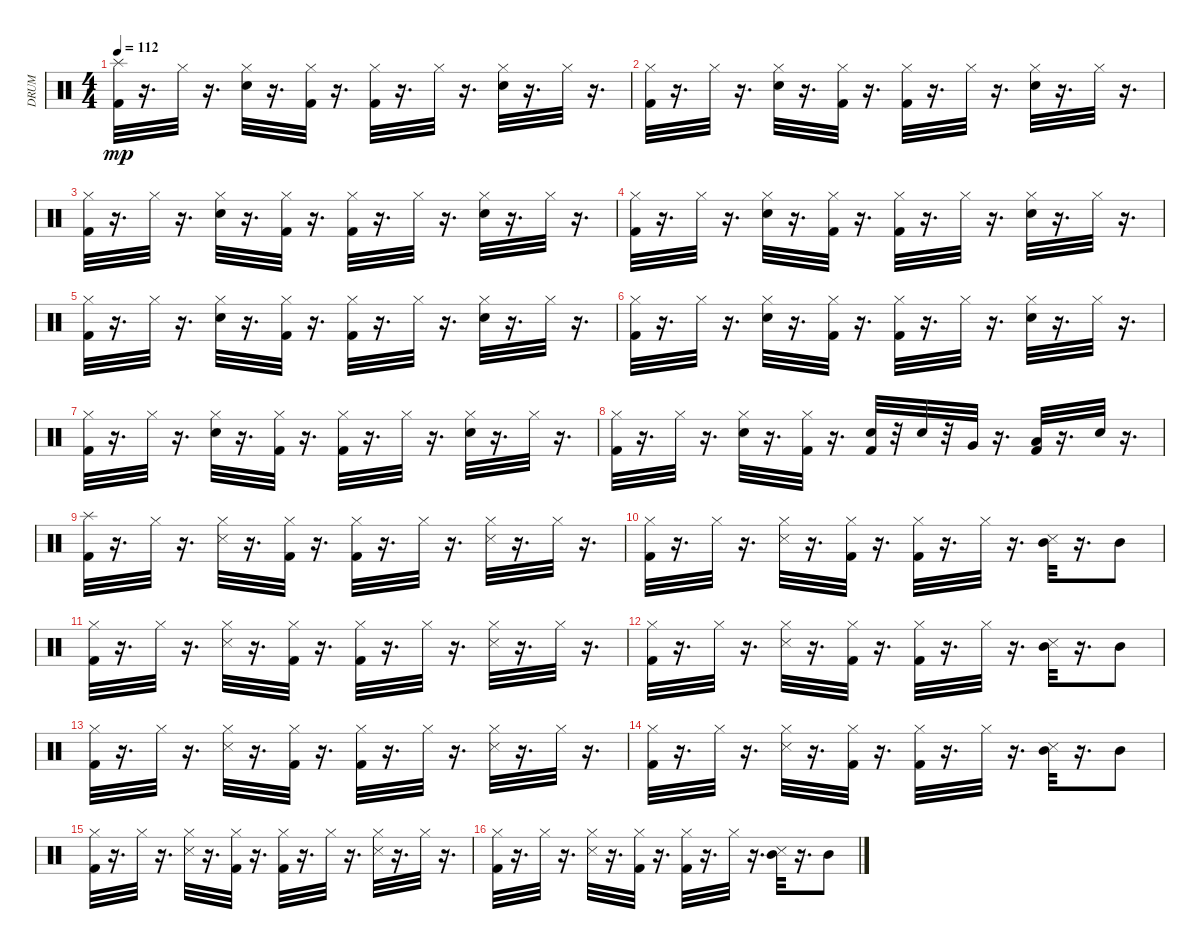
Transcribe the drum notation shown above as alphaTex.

\track ("DRUM" "DRUM") {instrument percussion}
\staff {score}
\articulation defaults
\ts (4 4)
\tempo 112
\clef neutral
\ks c
("Kick (hit) 2" "Splash (hit)").32{dy mp} r.16{d} "Hi-Hat (closed)".32 r.16{d} ("Hi-Hat (closed)" "Snare (hit) 2").32 r.16{d} ("Kick (hit) 2" "Hi-Hat (closed)").32 r.16{d} ("Kick (hit) 2" "Hi-Hat (closed)").32 r.16{d} "Hi-Hat (closed)".32 r.16{d} ("Hi-Hat (closed)" "Snare (hit) 2").32 r.16{d} "Hi-Hat (closed)".32 r.16{d} |
("Kick (hit) 2" "Hi-Hat (closed)").32 r.16{d} "Hi-Hat (closed)".32 r.16{d} ("Hi-Hat (closed)" "Snare (hit) 2").32 r.16{d} ("Kick (hit) 2" "Hi-Hat (closed)").32 r.16{d} ("Kick (hit) 2" "Hi-Hat (closed)").32 r.16{d} "Hi-Hat (closed)".32 r.16{d} ("Hi-Hat (closed)" "Snare (hit) 2").32 r.16{d} "Hi-Hat (closed)".32 r.16{d} |
("Kick (hit) 2" "Hi-Hat (closed)").32 r.16{d} "Hi-Hat (closed)".32 r.16{d} ("Hi-Hat (closed)" "Snare (hit) 2").32 r.16{d} ("Kick (hit) 2" "Hi-Hat (closed)").32 r.16{d} ("Kick (hit) 2" "Hi-Hat (closed)").32 r.16{d} "Hi-Hat (closed)".32 r.16{d} ("Hi-Hat (closed)" "Snare (hit) 2").32 r.16{d} "Hi-Hat (closed)".32 r.16{d} |
("Kick (hit) 2" "Hi-Hat (closed)").32 r.16{d} "Hi-Hat (closed)".32 r.16{d} ("Hi-Hat (closed)" "Snare (hit) 2").32 r.16{d} ("Kick (hit) 2" "Hi-Hat (closed)").32 r.16{d} ("Kick (hit) 2" "Hi-Hat (closed)").32 r.16{d} "Hi-Hat (closed)".32 r.16{d} ("Hi-Hat (closed)" "Snare (hit) 2").32 r.16{d} "Hi-Hat (closed)".32 r.16{d} |
("Kick (hit) 2" "Hi-Hat (closed)").32 r.16{d} "Hi-Hat (closed)".32 r.16{d} ("Hi-Hat (closed)" "Snare (hit) 2").32 r.16{d} ("Kick (hit) 2" "Hi-Hat (closed)").32 r.16{d} ("Kick (hit) 2" "Hi-Hat (closed)").32 r.16{d} "Hi-Hat (closed)".32 r.16{d} ("Hi-Hat (closed)" "Snare (hit) 2").32 r.16{d} "Hi-Hat (closed)".32 r.16{d} |
("Kick (hit) 2" "Hi-Hat (closed)").32 r.16{d} "Hi-Hat (closed)".32 r.16{d} ("Hi-Hat (closed)" "Snare (hit) 2").32 r.16{d} ("Kick (hit) 2" "Hi-Hat (closed)").32 r.16{d} ("Kick (hit) 2" "Hi-Hat (closed)").32 r.16{d} "Hi-Hat (closed)".32 r.16{d} ("Hi-Hat (closed)" "Snare (hit) 2").32 r.16{d} "Hi-Hat (closed)".32 r.16{d} |
("Kick (hit) 2" "Hi-Hat (closed)").32 r.16{d} "Hi-Hat (closed)".32 r.16{d} ("Hi-Hat (closed)" "Snare (hit) 2").32 r.16{d} ("Kick (hit) 2" "Hi-Hat (closed)").32 r.16{d} ("Kick (hit) 2" "Hi-Hat (closed)").32 r.16{d} "Hi-Hat (closed)".32 r.16{d} ("Hi-Hat (closed)" "Snare (hit) 2").32 r.16{d} "Hi-Hat (closed)".32 r.16{d} |
("Kick (hit) 2" "Hi-Hat (closed)").32 r.16{d} "Hi-Hat (closed)".32 r.16{d} ("Hi-Hat (closed)" "Snare (hit) 2").32 r.16{d} ("Kick (hit) 2" "Hi-Hat (closed)").32 r.16{d} ("Kick (hit) 2" "Snare (hit) 2").32 r.32 "Snare (hit) 2".32 r.32 "Very Low Tom (hit)".32 r.16{d} ("Kick (hit) 2" "Low Floor Tom (hit)").32 r.16{d} "Electric Snare (hit)".32 r.16{d} |
("Kick (hit) 2" "Splash (hit)").32 r.16{d} "Hi-Hat (closed)".32 r.16{d} ("Hi-Hat (closed)" "Snare (side stick) 3").32 r.16{d} ("Kick (hit) 2" "Hi-Hat (closed)").32 r.16{d} ("Kick (hit) 2" "Hi-Hat (closed)").32 r.16{d} "Hi-Hat (closed)".32 r.16{d} ("Hi-Hat (closed)" "Snare (side stick) 3").32 r.16{d} "Hi-Hat (closed)".32 r.16{d} |
("Kick (hit) 2" "Hi-Hat (closed)").32 r.16{d} "Hi-Hat (closed)".32 r.16{d} ("Hi-Hat (closed)" "Snare (side stick) 3").32 r.16{d} ("Kick (hit) 2" "Hi-Hat (closed)").32 r.16{d} ("Kick (hit) 2" "Hi-Hat (closed)").32 r.16{d} "Hi-Hat (closed)".32 r.16{d} ("Snare (side stick) 3" "Mid Tom (hit)").32 r.16{d} "Mid Tom (hit)".8 |
("Kick (hit) 2" "Hi-Hat (closed)").32 r.16{d} "Hi-Hat (closed)".32 r.16{d} ("Hi-Hat (closed)" "Snare (side stick) 3").32 r.16{d} ("Kick (hit) 2" "Hi-Hat (closed)").32 r.16{d} ("Kick (hit) 2" "Hi-Hat (closed)").32 r.16{d} "Hi-Hat (closed)".32 r.16{d} ("Hi-Hat (closed)" "Snare (side stick) 3").32 r.16{d} "Hi-Hat (closed)".32 r.16{d} |
("Kick (hit) 2" "Hi-Hat (closed)").32 r.16{d} "Hi-Hat (closed)".32 r.16{d} ("Hi-Hat (closed)" "Snare (side stick) 3").32 r.16{d} ("Kick (hit) 2" "Hi-Hat (closed)").32 r.16{d} ("Kick (hit) 2" "Hi-Hat (closed)").32 r.16{d} "Hi-Hat (closed)".32 r.16{d} ("Snare (side stick) 3" "Mid Tom (hit)").32 r.16{d} "Mid Tom (hit)".8 |
("Kick (hit) 2" "Hi-Hat (closed)").32 r.16{d} "Hi-Hat (closed)".32 r.16{d} ("Hi-Hat (closed)" "Snare (side stick) 3").32 r.16{d} ("Kick (hit) 2" "Hi-Hat (closed)").32 r.16{d} ("Kick (hit) 2" "Hi-Hat (closed)").32 r.16{d} "Hi-Hat (closed)".32 r.16{d} ("Hi-Hat (closed)" "Snare (side stick) 3").32 r.16{d} "Hi-Hat (closed)".32 r.16{d} |
("Kick (hit) 2" "Hi-Hat (closed)").32 r.16{d} "Hi-Hat (closed)".32 r.16{d} ("Hi-Hat (closed)" "Snare (side stick) 3").32 r.16{d} ("Kick (hit) 2" "Hi-Hat (closed)").32 r.16{d} ("Kick (hit) 2" "Hi-Hat (closed)").32 r.16{d} "Hi-Hat (closed)".32 r.16{d} ("Snare (side stick) 3" "Mid Tom (hit)").32 r.16{d} "Mid Tom (hit)".8 |
("Kick (hit) 2" "Hi-Hat (closed)").32 r.16{d} "Hi-Hat (closed)".32 r.16{d} ("Hi-Hat (closed)" "Snare (side stick) 3").32 r.16{d} ("Kick (hit) 2" "Hi-Hat (closed)").32 r.16{d} ("Kick (hit) 2" "Hi-Hat (closed)").32 r.16{d} "Hi-Hat (closed)".32 r.16{d} ("Hi-Hat (closed)" "Snare (side stick) 3").32 r.16{d} "Hi-Hat (closed)".32 r.16{d} |
("Kick (hit) 2" "Hi-Hat (closed)").32 r.16{d} "Hi-Hat (closed)".32 r.16{d} ("Hi-Hat (closed)" "Snare (side stick) 3").32 r.16{d} ("Kick (hit) 2" "Hi-Hat (closed)").32 r.16{d} ("Kick (hit) 2" "Hi-Hat (closed)").32 r.16{d} "Hi-Hat (closed)".32 r.16{d} ("Snare (side stick) 3" "Mid Tom (hit)").32 r.16{d} "Mid Tom (hit)".8
